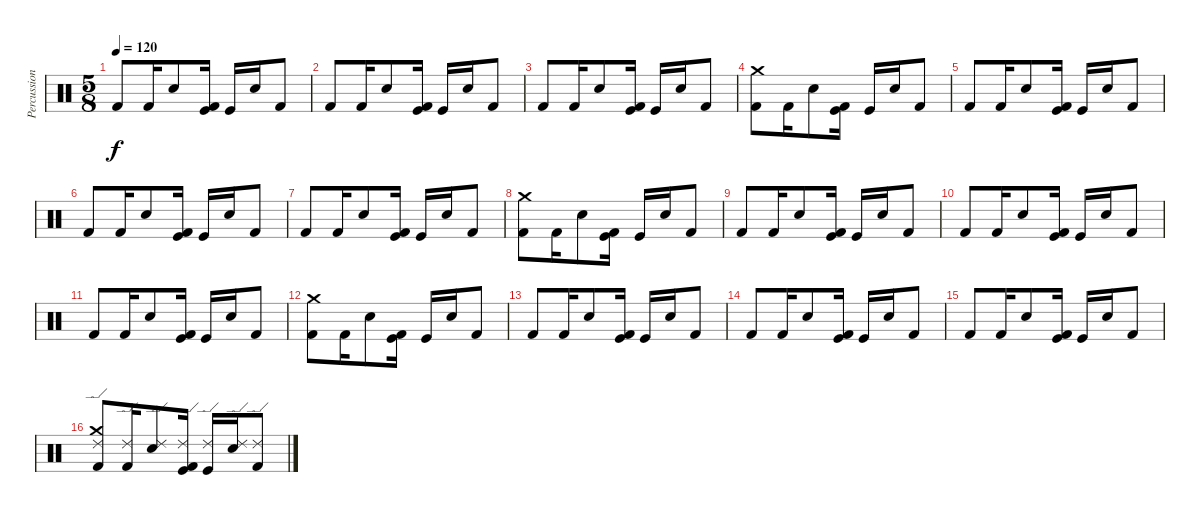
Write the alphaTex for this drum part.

\track ("Percussion" "Percussion") {instrument percussion}
\staff {score}
\articulation defaults
\ts (5 8)
\tempo 120
\clef neutral
\ks c "Kick (hit) 2".8{dy f} "Kick (hit) 2".16 "Electric Snare (hit)".8
("Kick (hit) 2" "Kick (hit)").16 "Kick (hit)".16 "Electric Snare (hit)".16 "Kick (hit) 2".8 |
"Kick (hit) 2".8 "Kick (hit) 2".16 "Electric Snare (hit)".8 ("Kick (hit) 2" "Kick (hit)").16 "Kick (hit)".16 "Electric Snare (hit)".16 "Kick (hit) 2".8 |
"Kick (hit) 2".8 "Kick (hit) 2".16 "Electric Snare (hit)".8 ("Kick (hit) 2" "Kick (hit)").16 "Kick (hit)".16 "Electric Snare (hit)".16 "Kick (hit) 2".8 |
("Kick (hit) 2" "Crash medium (hit)").8 "Kick (hit) 2".16 "Electric Snare (hit)".8 ("Kick (hit) 2" "Kick (hit)").16 "Kick (hit)".16 "Electric Snare (hit)".16 "Kick (hit) 2".8 |
"Kick (hit) 2".8 "Kick (hit) 2".16 "Electric Snare (hit)".8 ("Kick (hit) 2" "Kick (hit)").16 "Kick (hit)".16 "Electric Snare (hit)".16 "Kick (hit) 2".8 |
"Kick (hit) 2".8 "Kick (hit) 2".16 "Electric Snare (hit)".8 ("Kick (hit) 2" "Kick (hit)").16 "Kick (hit)".16 "Electric Snare (hit)".16 "Kick (hit) 2".8 |
"Kick (hit) 2".8 "Kick (hit) 2".16 "Electric Snare (hit)".8 ("Kick (hit) 2" "Kick (hit)").16 "Kick (hit)".16 "Electric Snare (hit)".16 "Kick (hit) 2".8 |
("Kick (hit) 2" "Crash medium (hit)").8 "Kick (hit) 2".16 "Electric Snare (hit)".8 ("Kick (hit) 2" "Kick (hit)").16 "Kick (hit)".16 "Electric Snare (hit)".16 "Kick (hit) 2".8 |
"Kick (hit) 2".8 "Kick (hit) 2".16 "Electric Snare (hit)".8 ("Kick (hit) 2" "Kick (hit)").16 "Kick (hit)".16 "Electric Snare (hit)".16 "Kick (hit) 2".8 |
"Kick (hit) 2".8 "Kick (hit) 2".16 "Electric Snare (hit)".8 ("Kick (hit) 2" "Kick (hit)").16 "Kick (hit)".16 "Electric Snare (hit)".16 "Kick (hit) 2".8 |
"Kick (hit) 2".8 "Kick (hit) 2".16 "Electric Snare (hit)".8 ("Kick (hit) 2" "Kick (hit)").16 "Kick (hit)".16 "Electric Snare (hit)".16 "Kick (hit) 2".8 |
("Kick (hit) 2" "Crash medium (hit)").8 "Kick (hit) 2".16 "Electric Snare (hit)".8 ("Kick (hit) 2" "Kick (hit)").16 "Kick (hit)".16 "Electric Snare (hit)".16 "Kick (hit) 2".8 |
"Kick (hit) 2".8 "Kick (hit) 2".16 "Electric Snare (hit)".8 ("Kick (hit) 2" "Kick (hit)").16 "Kick (hit)".16 "Electric Snare (hit)".16 "Kick (hit) 2".8 |
"Kick (hit) 2".8 "Kick (hit) 2".16 "Electric Snare (hit)".8 ("Kick (hit) 2" "Kick (hit)").16 "Kick (hit)".16 "Electric Snare (hit)".16 "Kick (hit) 2".8 |
"Kick (hit) 2".8 "Kick (hit) 2".16 "Electric Snare (hit)".8 ("Kick (hit) 2" "Kick (hit)").16 "Kick (hit)".16 "Electric Snare (hit)".16 "Kick (hit) 2".8 |
("Kick (hit) 2" "Crash medium (hit)" "Ride (edge) 2").8 ("Kick (hit) 2" "Ride (edge) 2").16 ("Electric Snare (hit)" "Ride (edge) 2").8 ("Kick (hit) 2" "Kick (hit)" "Ride (edge) 2").16 ("Kick (hit)" "Ride (edge) 2").16 ("Electric Snare (hit)" "Ride (edge) 2").16 ("Kick (hit) 2" "Ride (edge) 2").8
